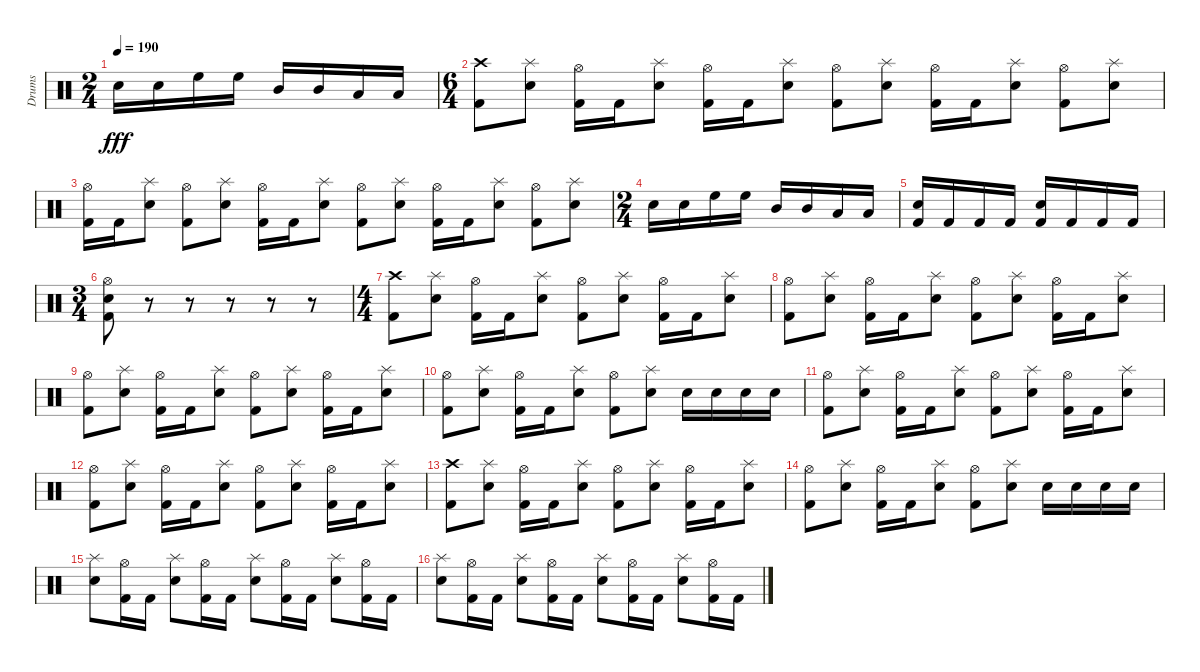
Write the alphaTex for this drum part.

\track ("Drums" "Drums") {instrument percussion}
\staff {score}
\articulation defaults
\ts (2 4)
\tempo 190
\clef neutral
\ks c "Snare (hit) 2".16{dy fff} "Snare (hit) 2".16 "High Floor Tom (hit)".16 "High Floor Tom (hit)".16 "Mid Tom (hit)".16 "Mid Tom (hit)".16 "Low Tom (hit)".16 "Low Tom (hit)".16
|
\ts (6 4)
("Crash high (hit)" "Kick (hit) 2").8 ("Splash (hit)" "Snare (hit) 2").8 ("Hi-Hat (open)" "Kick (hit) 2").16 "Kick (hit) 2".16 ("Splash (hit)" "Snare (hit) 2").8 ("Hi-Hat (open)" "Kick (hit) 2").16 "Kick (hit) 2".16 ("Splash (hit)" "Snare (hit) 2").8 ("Hi-Hat (open)" "Kick (hit) 2").8 ("Splash (hit)" "Snare (hit) 2").8 ("Hi-Hat (open)" "Kick (hit) 2").16 "Kick (hit) 2".16 ("Splash (hit)" "Snare (hit) 2").8 ("Hi-Hat (open)" "Kick (hit) 2").8 ("Splash (hit)" "Snare (hit) 2").8 |
("Hi-Hat (open)" "Kick (hit) 2").16 "Kick (hit) 2".16 ("Splash (hit)" "Snare (hit) 2").8 ("Hi-Hat (open)" "Kick (hit) 2").8 ("Splash (hit)" "Snare (hit) 2").8 ("Hi-Hat (open)" "Kick (hit) 2").16 "Kick (hit) 2".16 ("Splash (hit)" "Snare (hit) 2").8 ("Hi-Hat (open)" "Kick (hit) 2").8 ("Splash (hit)" "Snare (hit) 2").8 ("Hi-Hat (open)" "Kick (hit) 2").16 "Kick (hit) 2".16 ("Splash (hit)" "Snare (hit) 2").8 ("Hi-Hat (open)" "Kick (hit) 2").8 ("Splash (hit)" "Snare (hit) 2").8 |
\ts (2 4)
"Snare (hit) 2".16 "Snare (hit) 2".16 "High Floor Tom (hit)".16 "High Floor Tom (hit)".16 "Mid Tom (hit)".16 "Mid Tom (hit)".16 "Low Tom (hit)".16 "Low Tom (hit)".16 |
("Snare (hit) 2" "Kick (hit) 2").16 "Kick (hit) 2".16 "Kick (hit) 2".16 "Kick (hit) 2".16 ("Snare (hit) 2" "Kick (hit) 2").16 "Kick (hit) 2".16 "Kick (hit) 2".16 "Kick (hit) 2".16 |
\ts (3 4)
("Hi-Hat (open)" "Snare (hit) 2" "Kick (hit) 2").8 r.8 r.8 r.8 r.8 r.8 |
\ts (4 4)
("Crash high (hit)" "Kick (hit) 2").8 ("Splash (hit)" "Snare (hit) 2").8 ("Hi-Hat (open)" "Kick (hit) 2").16 "Kick (hit) 2".16 ("Splash (hit)" "Snare (hit) 2").8 ("Hi-Hat (open)" "Kick (hit) 2").8 ("Splash (hit)" "Snare (hit) 2").8 ("Hi-Hat (open)" "Kick (hit) 2").16 "Kick (hit) 2".16 ("Splash (hit)" "Snare (hit) 2").8 |
("Hi-Hat (open)" "Kick (hit) 2").8 ("Splash (hit)" "Snare (hit) 2").8 ("Hi-Hat (open)" "Kick (hit) 2").16 "Kick (hit) 2".16 ("Splash (hit)" "Snare (hit) 2").8 ("Hi-Hat (open)" "Kick (hit) 2").8 ("Splash (hit)" "Snare (hit) 2").8 ("Hi-Hat (open)" "Kick (hit) 2").16 "Kick (hit) 2".16 ("Splash (hit)" "Snare (hit) 2").8 |
("Hi-Hat (open)" "Kick (hit) 2").8 ("Splash (hit)" "Snare (hit) 2").8 ("Hi-Hat (open)" "Kick (hit) 2").16 "Kick (hit) 2".16 ("Splash (hit)" "Snare (hit) 2").8 ("Hi-Hat (open)" "Kick (hit) 2").8 ("Splash (hit)" "Snare (hit) 2").8 ("Hi-Hat (open)" "Kick (hit) 2").16 "Kick (hit) 2".16 ("Splash (hit)" "Snare (hit) 2").8 |
("Hi-Hat (open)" "Kick (hit) 2").8 ("Splash (hit)" "Snare (hit) 2").8 ("Hi-Hat (open)" "Kick (hit) 2").16 "Kick (hit) 2".16 ("Splash (hit)" "Snare (hit) 2").8 ("Hi-Hat (open)" "Kick (hit) 2").8 ("Splash (hit)" "Snare (hit) 2").8 "Snare (hit) 2".16 "Snare (hit) 2".16 "Snare (hit) 2".16 "Snare (hit) 2".16 |
("Hi-Hat (open)" "Kick (hit) 2").8 ("Splash (hit)" "Snare (hit) 2").8 ("Hi-Hat (open)" "Kick (hit) 2").16 "Kick (hit) 2".16 ("Splash (hit)" "Snare (hit) 2").8 ("Hi-Hat (open)" "Kick (hit) 2").8 ("Splash (hit)" "Snare (hit) 2").8 ("Hi-Hat (open)" "Kick (hit) 2").16 "Kick (hit) 2".16 ("Splash (hit)" "Snare (hit) 2").8 |
("Hi-Hat (open)" "Kick (hit) 2").8 ("Splash (hit)" "Snare (hit) 2").8 ("Hi-Hat (open)" "Kick (hit) 2").16 "Kick (hit) 2".16 ("Splash (hit)" "Snare (hit) 2").8 ("Hi-Hat (open)" "Kick (hit) 2").8 ("Splash (hit)" "Snare (hit) 2").8 ("Hi-Hat (open)" "Kick (hit) 2").16 "Kick (hit) 2".16 ("Splash (hit)" "Snare (hit) 2").8 |
("Crash high (hit)" "Kick (hit) 2").8 ("Splash (hit)" "Snare (hit) 2").8 ("Hi-Hat (open)" "Kick (hit) 2").16 "Kick (hit) 2".16 ("Splash (hit)" "Snare (hit) 2").8 ("Hi-Hat (open)" "Kick (hit) 2").8 ("Splash (hit)" "Snare (hit) 2").8 ("Hi-Hat (open)" "Kick (hit) 2").16 "Kick (hit) 2".16 ("Splash (hit)" "Snare (hit) 2").8 |
("Hi-Hat (open)" "Kick (hit) 2").8 ("Splash (hit)" "Snare (hit) 2").8 ("Hi-Hat (open)" "Kick (hit) 2").16 "Kick (hit) 2".16 ("Splash (hit)" "Snare (hit) 2").8 ("Hi-Hat (open)" "Kick (hit) 2").8 ("Splash (hit)" "Snare (hit) 2").8 "Snare (hit) 2".16 "Snare (hit) 2".16 "Snare (hit) 2".16 "Snare (hit) 2".16 |
("Splash (hit)" "Snare (hit) 2").8 ("Hi-Hat (open)" "Kick (hit) 2").16 "Kick (hit) 2".16 ("Splash (hit)" "Snare (hit) 2").8 ("Hi-Hat (open)" "Kick (hit) 2").16 "Kick (hit) 2".16 ("Splash (hit)" "Snare (hit) 2").8 ("Hi-Hat (open)" "Kick (hit) 2").16 "Kick (hit) 2".16 ("Splash (hit)" "Snare (hit) 2").8 ("Hi-Hat (open)" "Kick (hit) 2").16 "Kick (hit) 2".16 |
("Splash (hit)" "Snare (hit) 2").8 ("Hi-Hat (open)" "Kick (hit) 2").16 "Kick (hit) 2".16 ("Splash (hit)" "Snare (hit) 2").8 ("Hi-Hat (open)" "Kick (hit) 2").16 "Kick (hit) 2".16 ("Splash (hit)" "Snare (hit) 2").8 ("Hi-Hat (open)" "Kick (hit) 2").16 "Kick (hit) 2".16 ("Splash (hit)" "Snare (hit) 2").8 ("Hi-Hat (open)" "Kick (hit) 2").16 "Kick (hit) 2".16
